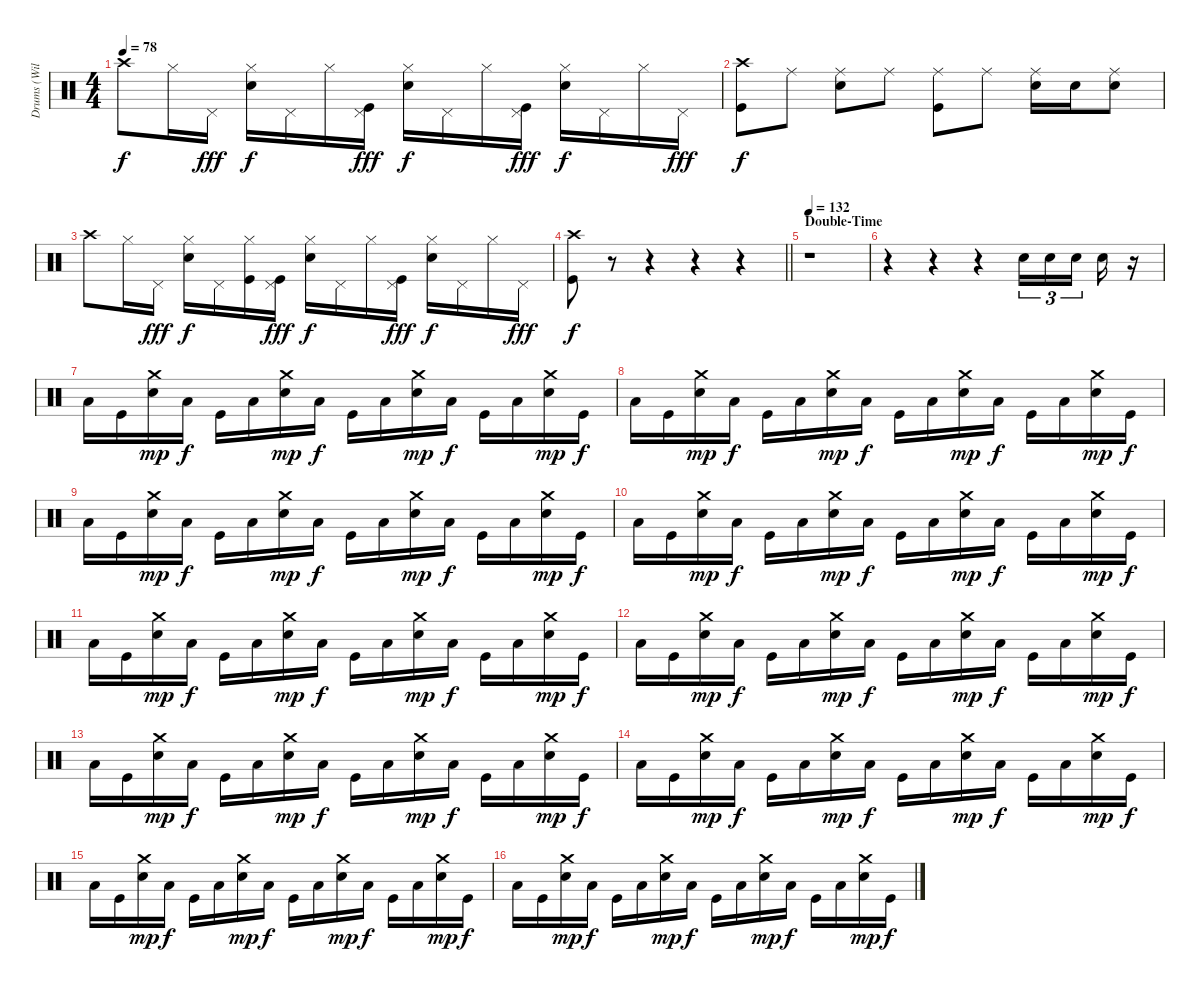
\track ("Drums (William Ward)" "Drums (Wil") {instrument percussion}
\staff {score}
\articulation defaults
\ts (4 4)
\tempo 78
\clef neutral
\ks c "Crash high (hit)".8{dy f} "Hi-Hat (closed)".16 "Pedal Hi-Hat (hit)".16{dy fff}
("Hi-Hat (closed)" "Electric Snare (hit)").16{dy f} "Pedal Hi-Hat (hit)".16 "Hi-Hat (closed)".16 ("Pedal Hi-Hat (hit)" "Kick (hit)").16{dy fff} ("Hi-Hat (closed)" "Electric Snare (hit)").16{dy f} "Pedal Hi-Hat (hit)".16 "Hi-Hat (closed)".16 ("Pedal Hi-Hat (hit)" "Kick (hit)").16{dy fff} ("Hi-Hat (closed)" "Electric Snare (hit)").16{dy f} "Pedal Hi-Hat (hit)".16 "Hi-Hat (closed)".16 "Pedal Hi-Hat (hit)".16{dy fff} |
("Crash high (hit)" "Kick (hit)").8{dy f} "Ride (middle)".8 ("Ride (middle)" "Electric Snare (hit)").8 "Ride (middle)".8 ("Ride (middle)" "Kick (hit)").8 "Ride (middle)".8 ("Ride (middle)" "Electric Snare (hit)").16 "Electric Snare (hit)".16 ("Ride (middle)" "Electric Snare (hit)").8 |
"Crash high (hit)".8 "Hi-Hat (closed)".16 "Pedal Hi-Hat (hit)".16{dy fff} ("Hi-Hat (closed)" "Electric Snare (hit)").16{dy f} "Pedal Hi-Hat (hit)".16 ("Hi-Hat (closed)" "Kick (hit)").16 ("Pedal Hi-Hat (hit)" "Kick (hit)").16{dy fff} ("Hi-Hat (closed)" "Electric Snare (hit)").16{dy f} "Pedal Hi-Hat (hit)".16 "Hi-Hat (closed)".16 ("Pedal Hi-Hat (hit)" "Kick (hit)").16{dy fff} ("Hi-Hat (closed)" "Electric Snare (hit)").16{dy f} "Pedal Hi-Hat (hit)".16 "Hi-Hat (closed)".16 "Pedal Hi-Hat (hit)".16{dy fff} |
\barLineRight lightlight
("Crash high (hit)" "Kick (hit)").8{dy f} r.8 r.4 r.4 r.4 |
\section ("" "Double-Time")
\tempo 132
r.1 |
r.4 r.4 r.4 "Electric Snare (hit)".16{tu (3 2)} "Electric Snare (hit)".16{tu (3 2)} "Electric Snare (hit)".16{tu (3 2)} "Electric Snare (hit)".16 r.16 |
"Low Floor Tom (hit)".16 "Kick (hit)".16 ("Crash medium (hit)" "Electric Snare (hit)").16{dy mp} "Low Floor Tom (hit)".16{dy f} "Kick (hit)".16 "Low Floor Tom (hit)".16 ("Crash medium (hit)" "Electric Snare (hit)").16{dy mp} "Low Floor Tom (hit)".16{dy f} "Kick (hit)".16 "Low Floor Tom (hit)".16 ("Crash medium (hit)" "Electric Snare (hit)").16{dy mp} "Low Floor Tom (hit)".16{dy f} "Kick (hit)".16 "Low Floor Tom (hit)".16 ("Crash medium (hit)" "Electric Snare (hit)").16{dy mp} "Kick (hit)".16{dy f} |
"Low Floor Tom (hit)".16 "Kick (hit)".16 ("Crash medium (hit)" "Electric Snare (hit)").16{dy mp} "Low Floor Tom (hit)".16{dy f} "Kick (hit)".16 "Low Floor Tom (hit)".16 ("Crash medium (hit)" "Electric Snare (hit)").16{dy mp} "Low Floor Tom (hit)".16{dy f} "Kick (hit)".16 "Low Floor Tom (hit)".16 ("Crash medium (hit)" "Electric Snare (hit)").16{dy mp} "Low Floor Tom (hit)".16{dy f} "Kick (hit)".16 "Low Floor Tom (hit)".16 ("Crash medium (hit)" "Electric Snare (hit)").16{dy mp} "Kick (hit)".16{dy f} |
"Low Floor Tom (hit)".16 "Kick (hit)".16 ("Crash medium (hit)" "Electric Snare (hit)").16{dy mp} "Low Floor Tom (hit)".16{dy f} "Kick (hit)".16 "Low Floor Tom (hit)".16 ("Crash medium (hit)" "Electric Snare (hit)").16{dy mp} "Low Floor Tom (hit)".16{dy f} "Kick (hit)".16 "Low Floor Tom (hit)".16 ("Crash medium (hit)" "Electric Snare (hit)").16{dy mp} "Low Floor Tom (hit)".16{dy f} "Kick (hit)".16 "Low Floor Tom (hit)".16 ("Crash medium (hit)" "Electric Snare (hit)").16{dy mp} "Kick (hit)".16{dy f} |
"Low Floor Tom (hit)".16 "Kick (hit)".16 ("Crash medium (hit)" "Electric Snare (hit)").16{dy mp} "Low Floor Tom (hit)".16{dy f} "Kick (hit)".16 "Low Floor Tom (hit)".16 ("Crash medium (hit)" "Electric Snare (hit)").16{dy mp} "Low Floor Tom (hit)".16{dy f} "Kick (hit)".16 "Low Floor Tom (hit)".16 ("Crash medium (hit)" "Electric Snare (hit)").16{dy mp} "Low Floor Tom (hit)".16{dy f} "Kick (hit)".16 "Low Floor Tom (hit)".16 ("Crash medium (hit)" "Electric Snare (hit)").16{dy mp} "Kick (hit)".16{dy f} |
"Low Floor Tom (hit)".16 "Kick (hit)".16 ("Crash medium (hit)" "Electric Snare (hit)").16{dy mp} "Low Floor Tom (hit)".16{dy f} "Kick (hit)".16 "Low Floor Tom (hit)".16 ("Crash medium (hit)" "Electric Snare (hit)").16{dy mp} "Low Floor Tom (hit)".16{dy f} "Kick (hit)".16 "Low Floor Tom (hit)".16 ("Crash medium (hit)" "Electric Snare (hit)").16{dy mp} "Low Floor Tom (hit)".16{dy f} "Kick (hit)".16 "Low Floor Tom (hit)".16 ("Crash medium (hit)" "Electric Snare (hit)").16{dy mp} "Kick (hit)".16{dy f} |
"Low Floor Tom (hit)".16 "Kick (hit)".16 ("Crash medium (hit)" "Electric Snare (hit)").16{dy mp} "Low Floor Tom (hit)".16{dy f} "Kick (hit)".16 "Low Floor Tom (hit)".16 ("Crash medium (hit)" "Electric Snare (hit)").16{dy mp} "Low Floor Tom (hit)".16{dy f} "Kick (hit)".16 "Low Floor Tom (hit)".16 ("Crash medium (hit)" "Electric Snare (hit)").16{dy mp} "Low Floor Tom (hit)".16{dy f} "Kick (hit)".16 "Low Floor Tom (hit)".16 ("Crash medium (hit)" "Electric Snare (hit)").16{dy mp} "Kick (hit)".16{dy f} |
"Low Floor Tom (hit)".16 "Kick (hit)".16 ("Crash medium (hit)" "Electric Snare (hit)").16{dy mp} "Low Floor Tom (hit)".16{dy f} "Kick (hit)".16 "Low Floor Tom (hit)".16 ("Crash medium (hit)" "Electric Snare (hit)").16{dy mp} "Low Floor Tom (hit)".16{dy f} "Kick (hit)".16 "Low Floor Tom (hit)".16 ("Crash medium (hit)" "Electric Snare (hit)").16{dy mp} "Low Floor Tom (hit)".16{dy f} "Kick (hit)".16 "Low Floor Tom (hit)".16 ("Crash medium (hit)" "Electric Snare (hit)").16{dy mp} "Kick (hit)".16{dy f} |
"Low Floor Tom (hit)".16 "Kick (hit)".16 ("Crash medium (hit)" "Electric Snare (hit)").16{dy mp} "Low Floor Tom (hit)".16{dy f} "Kick (hit)".16 "Low Floor Tom (hit)".16 ("Crash medium (hit)" "Electric Snare (hit)").16{dy mp} "Low Floor Tom (hit)".16{dy f} "Kick (hit)".16 "Low Floor Tom (hit)".16 ("Crash medium (hit)" "Electric Snare (hit)").16{dy mp} "Low Floor Tom (hit)".16{dy f} "Kick (hit)".16 "Low Floor Tom (hit)".16 ("Crash medium (hit)" "Electric Snare (hit)").16{dy mp} "Kick (hit)".16{dy f} |
"Low Floor Tom (hit)".16 "Kick (hit)".16 ("Crash medium (hit)" "Electric Snare (hit)").16{dy mp} "Low Floor Tom (hit)".16{dy f} "Kick (hit)".16 "Low Floor Tom (hit)".16 ("Crash medium (hit)" "Electric Snare (hit)").16{dy mp} "Low Floor Tom (hit)".16{dy f} "Kick (hit)".16 "Low Floor Tom (hit)".16 ("Crash medium (hit)" "Electric Snare (hit)").16{dy mp} "Low Floor Tom (hit)".16{dy f} "Kick (hit)".16 "Low Floor Tom (hit)".16 ("Crash medium (hit)" "Electric Snare (hit)").16{dy mp} "Kick (hit)".16{dy f} |
"Low Floor Tom (hit)".16 "Kick (hit)".16 ("Crash medium (hit)" "Electric Snare (hit)").16{dy mp} "Low Floor Tom (hit)".16{dy f} "Kick (hit)".16 "Low Floor Tom (hit)".16 ("Crash medium (hit)" "Electric Snare (hit)").16{dy mp} "Low Floor Tom (hit)".16{dy f} "Kick (hit)".16 "Low Floor Tom (hit)".16 ("Crash medium (hit)" "Electric Snare (hit)").16{dy mp} "Low Floor Tom (hit)".16{dy f} "Kick (hit)".16 "Low Floor Tom (hit)".16 ("Crash medium (hit)" "Electric Snare (hit)").16{dy mp} "Kick (hit)".16{dy f}
